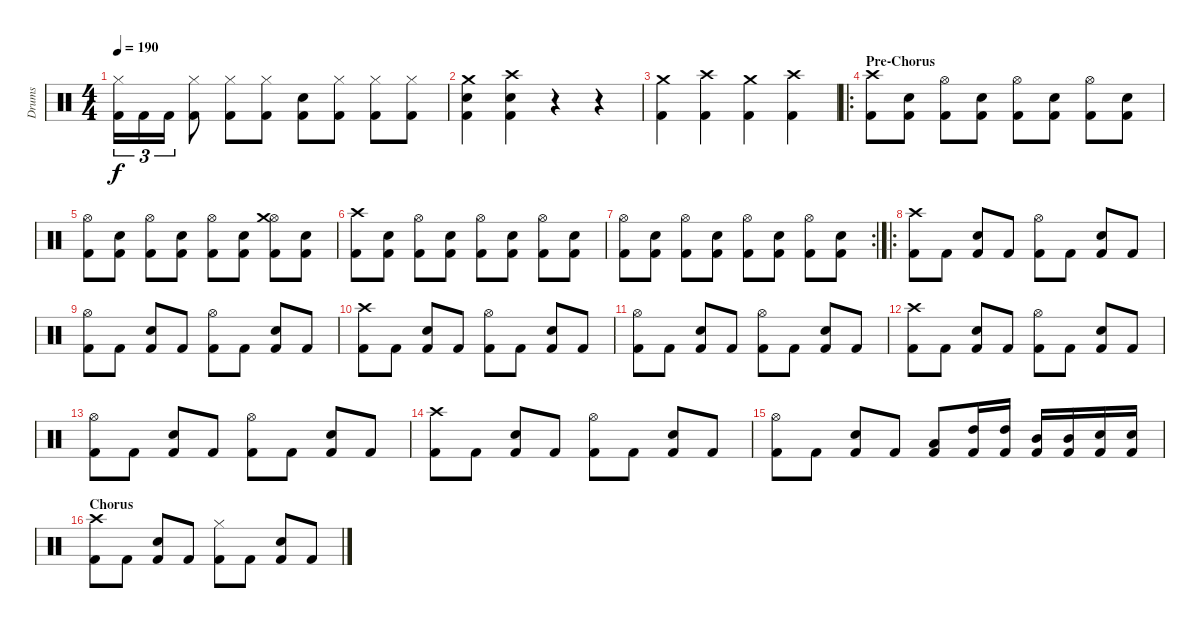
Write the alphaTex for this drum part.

\track ("Drums" "Drums") {instrument percussion}
\staff {score}
\articulation defaults
\ts (4 4)
\tempo 190
\clef neutral
\ks c
("Kick (hit) 2" "Hi-Hat (closed)").16{tu (3 2) dy f} "Kick (hit) 2".16{tu (3 2)} "Kick (hit) 2".16{tu (3 2)} ("Kick (hit) 2" "Hi-Hat (closed)").8 ("Kick (hit) 2" "Hi-Hat (closed)").8 ("Kick (hit) 2" "Hi-Hat (closed)").8 ("Kick (hit) 2" "Electric Snare (hit)").8 ("Kick (hit) 2" "Hi-Hat (closed)").8 ("Kick (hit) 2" "Hi-Hat (closed)").8 ("Kick (hit) 2" "Hi-Hat (closed)").8 |
("Kick (hit) 2" "Electric Snare (hit)" "Crash medium (hit)").4 ("Kick (hit) 2" "Electric Snare (hit)" "Crash high (hit)").4 r.4 r.4 |
("Kick (hit) 2" "Crash medium (hit)").4 ("Kick (hit) 2" "Crash high (hit)").4 ("Kick (hit) 2" "Crash medium (hit)").4 ("Kick (hit) 2" "Crash high (hit)").4 |
\ro
\section ("" "Pre-Chorus")
("Kick (hit) 2" "Crash high (hit)").8 ("Kick (hit) 2" "Electric Snare (hit)").8 ("Kick (hit) 2" "Hi-Hat (open)").8 ("Kick (hit) 2" "Electric Snare (hit)").8 ("Kick (hit) 2" "Hi-Hat (open)").8 ("Kick (hit) 2" "Electric Snare (hit)").8 ("Kick (hit) 2" "Hi-Hat (open)").8 ("Kick (hit) 2" "Electric Snare (hit)").8 |
("Kick (hit) 2" "Hi-Hat (open)").8 ("Kick (hit) 2" "Electric Snare (hit)").8 ("Kick (hit) 2" "Hi-Hat (open)").8 ("Kick (hit) 2" "Electric Snare (hit)").8 ("Kick (hit) 2" "Hi-Hat (open)").8 ("Kick (hit) 2" "Electric Snare (hit)").8 ("Kick (hit) 2" "Hi-Hat (open)" "Crash medium (hit)").8 ("Kick (hit) 2" "Electric Snare (hit)").8 |
("Kick (hit) 2" "Crash high (hit)").8 ("Kick (hit) 2" "Electric Snare (hit)").8 ("Kick (hit) 2" "Hi-Hat (open)").8 ("Kick (hit) 2" "Electric Snare (hit)").8 ("Kick (hit) 2" "Hi-Hat (open)").8 ("Kick (hit) 2" "Electric Snare (hit)").8 ("Kick (hit) 2" "Hi-Hat (open)").8 ("Kick (hit) 2" "Electric Snare (hit)").8 |
\rc 2
("Kick (hit) 2" "Hi-Hat (open)").8 ("Kick (hit) 2" "Electric Snare (hit)").8 ("Kick (hit) 2" "Hi-Hat (open)").8 ("Kick (hit) 2" "Electric Snare (hit)").8 ("Kick (hit) 2" "Hi-Hat (open)").8 ("Kick (hit) 2" "Electric Snare (hit)").8 ("Kick (hit) 2" "Hi-Hat (open)").8 ("Kick (hit) 2" "Electric Snare (hit)").8 |
\ro
("Kick (hit) 2" "Crash high (hit)").8 "Kick (hit) 2".8 ("Kick (hit) 2" "Electric Snare (hit)").8 "Kick (hit) 2".8 ("Kick (hit) 2" "Hi-Hat (open)").8 "Kick (hit) 2".8 ("Kick (hit) 2" "Electric Snare (hit)").8 "Kick (hit) 2".8 |
("Kick (hit) 2" "Hi-Hat (open)").8 "Kick (hit) 2".8 ("Kick (hit) 2" "Electric Snare (hit)").8 "Kick (hit) 2".8 ("Kick (hit) 2" "Hi-Hat (open)").8 "Kick (hit) 2".8 ("Kick (hit) 2" "Electric Snare (hit)").8 "Kick (hit) 2".8 |
("Kick (hit) 2" "Crash high (hit)").8 "Kick (hit) 2".8 ("Kick (hit) 2" "Electric Snare (hit)").8 "Kick (hit) 2".8 ("Kick (hit) 2" "Hi-Hat (open)").8 "Kick (hit) 2".8 ("Kick (hit) 2" "Electric Snare (hit)").8 "Kick (hit) 2".8 |
("Kick (hit) 2" "Hi-Hat (open)").8 "Kick (hit) 2".8 ("Kick (hit) 2" "Electric Snare (hit)").8 "Kick (hit) 2".8 ("Kick (hit) 2" "Hi-Hat (open)").8 "Kick (hit) 2".8 ("Kick (hit) 2" "Electric Snare (hit)").8 "Kick (hit) 2".8 |
("Kick (hit) 2" "Crash high (hit)").8 "Kick (hit) 2".8 ("Kick (hit) 2" "Electric Snare (hit)").8 "Kick (hit) 2".8 ("Kick (hit) 2" "Hi-Hat (open)").8 "Kick (hit) 2".8 ("Kick (hit) 2" "Electric Snare (hit)").8 "Kick (hit) 2".8 |
("Kick (hit) 2" "Hi-Hat (open)").8 "Kick (hit) 2".8 ("Kick (hit) 2" "Electric Snare (hit)").8 "Kick (hit) 2".8 ("Kick (hit) 2" "Hi-Hat (open)").8 "Kick (hit) 2".8 ("Kick (hit) 2" "Electric Snare (hit)").8 "Kick (hit) 2".8 |
("Kick (hit) 2" "Crash high (hit)").8 "Kick (hit) 2".8 ("Kick (hit) 2" "Electric Snare (hit)").8 "Kick (hit) 2".8 ("Kick (hit) 2" "Hi-Hat (open)").8 "Kick (hit) 2".8 ("Kick (hit) 2" "Electric Snare (hit)").8 "Kick (hit) 2".8 |
("Kick (hit) 2" "Hi-Hat (open)").8 "Kick (hit) 2".8 ("Kick (hit) 2" "Electric Snare (hit)").8 "Kick (hit) 2".8 ("Kick (hit) 2" "Low Tom (hit)").8 ("Kick (hit) 2" "High Tom (hit)").16 ("Kick (hit) 2" "High Tom (hit)").16 ("Kick (hit) 2" "Mid Tom (hit)").16 ("Kick (hit) 2" "Mid Tom (hit)").16 ("Kick (hit) 2" "Electric Snare (hit)").16 ("Kick (hit) 2" "Electric Snare (hit)").16 |
\section ("" "Chorus")
("Kick (hit) 2" "Crash high (hit)").8 "Kick (hit) 2".8 ("Kick (hit) 2" "Electric Snare (hit)").8 "Kick (hit) 2".8 ("Kick (hit) 2" "Hi-Hat (closed)").8 "Kick (hit) 2".8 ("Kick (hit) 2" "Electric Snare (hit)").8 "Kick (hit) 2".8
